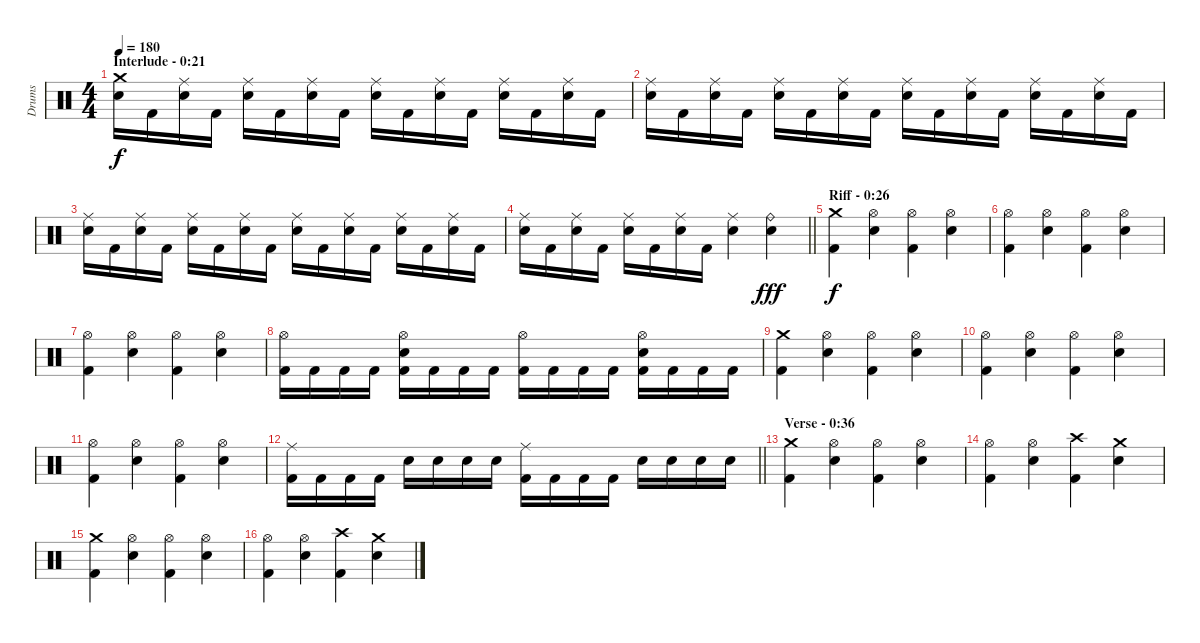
\track ("Drums" "Drums") {instrument percussion}
\staff {score}
\articulation defaults
\ts (4 4)
\section ("" "Interlude - 0:21")
\tempo 180
\clef neutral
\ks c
("Crash medium (hit)" "Electric Snare (hit)").16{dy f} "Kick (hit) 2".16 ("Ride (middle)" "Electric Snare (hit)").16 "Kick (hit) 2".16 ("Ride (middle)" "Electric Snare (hit)").16 "Kick (hit) 2".16 ("Ride (middle)" "Electric Snare (hit)").16 "Kick (hit) 2".16 ("Ride (middle)" "Electric Snare (hit)").16 "Kick (hit) 2".16 ("Ride (middle)" "Electric Snare (hit)").16 "Kick (hit) 2".16 ("Ride (middle)" "Electric Snare (hit)").16 "Kick (hit) 2".16 ("Ride (middle)" "Electric Snare (hit)").16 "Kick (hit) 2".16 |
("Ride (middle)" "Electric Snare (hit)").16 "Kick (hit) 2".16 ("Ride (middle)" "Electric Snare (hit)").16 "Kick (hit) 2".16 ("Ride (middle)" "Electric Snare (hit)").16 "Kick (hit) 2".16 ("Ride (middle)" "Electric Snare (hit)").16 "Kick (hit) 2".16 ("Ride (middle)" "Electric Snare (hit)").16 "Kick (hit) 2".16 ("Ride (middle)" "Electric Snare (hit)").16 "Kick (hit) 2".16 ("Ride (middle)" "Electric Snare (hit)").16 "Kick (hit) 2".16 ("Ride (middle)" "Electric Snare (hit)").16 "Kick (hit) 2".16 |
("Ride (middle)" "Electric Snare (hit)").16 "Kick (hit) 2".16 ("Ride (middle)" "Electric Snare (hit)").16 "Kick (hit) 2".16 ("Ride (middle)" "Electric Snare (hit)").16 "Kick (hit) 2".16 ("Ride (middle)" "Electric Snare (hit)").16 "Kick (hit) 2".16 ("Ride (middle)" "Electric Snare (hit)").16 "Kick (hit) 2".16 ("Ride (middle)" "Electric Snare (hit)").16 "Kick (hit) 2".16 ("Ride (middle)" "Electric Snare (hit)").16 "Kick (hit) 2".16 ("Ride (middle)" "Electric Snare (hit)").16 "Kick (hit) 2".16 |
\barLineRight lightlight
("Ride (middle)" "Electric Snare (hit)").16 "Kick (hit) 2".16 ("Ride (middle)" "Electric Snare (hit)").16 "Kick (hit) 2".16 ("Ride (middle)" "Electric Snare (hit)").16 "Kick (hit) 2".16 ("Ride (middle)" "Electric Snare (hit)").16 "Kick (hit) 2".16 ("Ride (middle)" "Electric Snare (hit)").4 ("Metronome (bell)" "Ride (bell)").4{dy fff} |
\section ("" "Riff - 0:26")
("Crash medium (hit)" "Kick (hit) 2").4{dy f} ("Hi-Hat (open)" "Electric Snare (hit)").4 ("Hi-Hat (open)" "Kick (hit) 2").4 ("Hi-Hat (open)" "Electric Snare (hit)").4 |
("Hi-Hat (open)" "Kick (hit) 2").4 ("Hi-Hat (open)" "Electric Snare (hit)").4 ("Hi-Hat (open)" "Kick (hit) 2").4 ("Hi-Hat (open)" "Electric Snare (hit)").4 |
("Hi-Hat (open)" "Kick (hit) 2").4 ("Hi-Hat (open)" "Electric Snare (hit)").4 ("Hi-Hat (open)" "Kick (hit) 2").4 ("Hi-Hat (open)" "Electric Snare (hit)").4 |
("Hi-Hat (open)" "Kick (hit) 2").16 "Kick (hit) 2".16 "Kick (hit) 2".16 "Kick (hit) 2".16 ("Hi-Hat (open)" "Electric Snare (hit)" "Kick (hit) 2").16 "Kick (hit) 2".16 "Kick (hit) 2".16 "Kick (hit) 2".16 ("Hi-Hat (open)" "Kick (hit) 2").16 "Kick (hit) 2".16 "Kick (hit) 2".16 "Kick (hit) 2".16 ("Hi-Hat (open)" "Electric Snare (hit)" "Kick (hit) 2").16 "Kick (hit) 2".16 "Kick (hit) 2".16 "Kick (hit) 2".16 |
("Crash medium (hit)" "Kick (hit) 2").4 ("Hi-Hat (open)" "Electric Snare (hit)").4 ("Hi-Hat (open)" "Kick (hit) 2").4 ("Hi-Hat (open)" "Electric Snare (hit)").4 |
("Hi-Hat (open)" "Kick (hit) 2").4 ("Hi-Hat (open)" "Electric Snare (hit)").4 ("Hi-Hat (open)" "Kick (hit) 2").4 ("Hi-Hat (open)" "Electric Snare (hit)").4 |
("Hi-Hat (open)" "Kick (hit) 2").4 ("Hi-Hat (open)" "Electric Snare (hit)").4 ("Hi-Hat (open)" "Kick (hit) 2").4 ("Hi-Hat (open)" "Electric Snare (hit)").4 |
\barLineRight lightlight
("Ride (middle)" "Kick (hit) 2").16 "Kick (hit) 2".16 "Kick (hit) 2".16 "Kick (hit) 2".16 "Electric Snare (hit)".16 "Electric Snare (hit)".16 "Electric Snare (hit)".16 "Electric Snare (hit)".16 ("Ride (middle)" "Kick (hit) 2").16 "Kick (hit) 2".16 "Kick (hit) 2".16 "Kick (hit) 2".16 "Electric Snare (hit)".16 "Electric Snare (hit)".16 "Electric Snare (hit)".16 "Electric Snare (hit)".16 |
\section ("" "Verse - 0:36")
("Crash medium (hit)" "Kick (hit) 2").4 ("Hi-Hat (open)" "Electric Snare (hit)").4 ("Hi-Hat (open)" "Kick (hit) 2").4 ("Hi-Hat (open)" "Electric Snare (hit)").4 |
("Hi-Hat (open)" "Kick (hit) 2").4 ("Hi-Hat (open)" "Electric Snare (hit)").4 ("Crash high (hit)" "Kick (hit) 2").4 ("Crash medium (hit)" "Electric Snare (hit)").4 |
("Crash medium (hit)" "Kick (hit) 2").4 ("Hi-Hat (open)" "Electric Snare (hit)").4 ("Hi-Hat (open)" "Kick (hit) 2").4 ("Hi-Hat (open)" "Electric Snare (hit)").4 |
("Hi-Hat (open)" "Kick (hit) 2").4 ("Hi-Hat (open)" "Electric Snare (hit)").4 ("Crash high (hit)" "Kick (hit) 2").4 ("Crash medium (hit)" "Electric Snare (hit)").4
